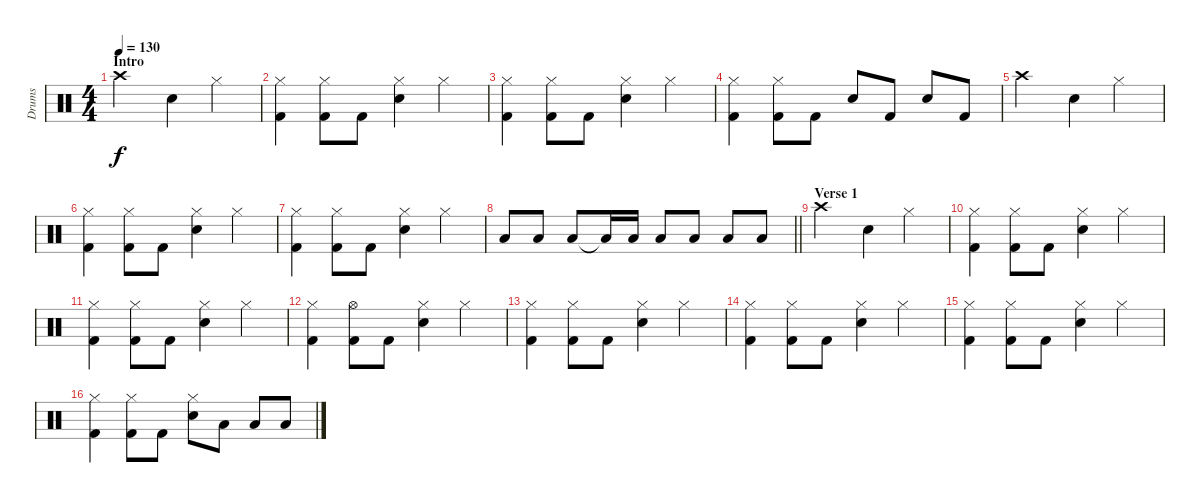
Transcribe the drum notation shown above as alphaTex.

\track ("Drums" "Drums") {instrument percussion}
\staff {score}
\articulation defaults
\ts (4 4)
\section ("" "Intro")
\tempo 130
\clef neutral
\ks c "Crash high (hit)".2{dy f} "Snare (hit) 2".4 "Hi-Hat (closed)".4
|
("Hi-Hat (closed)" "Kick (hit) 2").4 ("Hi-Hat (closed)" "Kick (hit) 2").8 "Kick (hit) 2".8 ("Hi-Hat (closed)" "Snare (hit) 2").4 "Hi-Hat (closed)".4 |
("Hi-Hat (closed)" "Kick (hit) 2").4 ("Hi-Hat (closed)" "Kick (hit) 2").8 "Kick (hit) 2".8 ("Hi-Hat (closed)" "Snare (hit) 2").4 "Hi-Hat (closed)".4 |
("Hi-Hat (closed)" "Kick (hit) 2").4 ("Hi-Hat (closed)" "Kick (hit) 2").8 "Kick (hit) 2".8 "Snare (hit) 2".8 "Kick (hit) 2".8 "Snare (hit) 2".8 "Kick (hit) 2".8 |
"Crash high (hit)".2 "Snare (hit) 2".4 "Hi-Hat (closed)".4 |
("Hi-Hat (closed)" "Kick (hit) 2").4 ("Hi-Hat (closed)" "Kick (hit) 2").8 "Kick (hit) 2".8 ("Hi-Hat (closed)" "Snare (hit) 2").4 "Hi-Hat (closed)".4 |
("Hi-Hat (closed)" "Kick (hit) 2").4 ("Hi-Hat (closed)" "Kick (hit) 2").8 "Kick (hit) 2".8 ("Hi-Hat (closed)" "Snare (hit) 2").4 "Hi-Hat (closed)".4 |
\barLineRight lightlight "Low Tom (hit)".8 "Low Tom (hit)".8 "Low Tom (hit)".8 "Low Tom (hit)"{t}.16 "Low Tom (hit)".16 "Low Tom (hit)".8 "Low Tom (hit)".8 "Low Tom (hit)".8 "Low Tom (hit)".8
|
\section ("" "Verse 1")
"Crash high (hit)".2 "Snare (hit) 2".4 "Hi-Hat (closed)".4 |
("Hi-Hat (closed)" "Kick (hit) 2").4 ("Hi-Hat (closed)" "Kick (hit) 2").8 "Kick (hit) 2".8 ("Hi-Hat (closed)" "Snare (hit) 2").4 "Hi-Hat (closed)".4 |
("Hi-Hat (closed)" "Kick (hit) 2").4 ("Hi-Hat (closed)" "Kick (hit) 2").8 "Kick (hit) 2".8 ("Hi-Hat (closed)" "Snare (hit) 2").4 "Hi-Hat (closed)".4 |
("Hi-Hat (closed)" "Kick (hit) 2").4 ("Hi-Hat (open)" "Kick (hit) 2").8 "Kick (hit) 2".8 ("Hi-Hat (closed)" "Snare (hit) 2").4 "Hi-Hat (closed)".4 |
("Hi-Hat (closed)" "Kick (hit) 2").4 ("Hi-Hat (closed)" "Kick (hit) 2").8 "Kick (hit) 2".8 ("Hi-Hat (closed)" "Snare (hit) 2").4 "Hi-Hat (closed)".4 |
("Hi-Hat (closed)" "Kick (hit) 2").4 ("Hi-Hat (closed)" "Kick (hit) 2").8 "Kick (hit) 2".8 ("Hi-Hat (closed)" "Snare (hit) 2").4 "Hi-Hat (closed)".4 |
("Hi-Hat (closed)" "Kick (hit) 2").4 ("Hi-Hat (closed)" "Kick (hit) 2").8 "Kick (hit) 2".8 ("Hi-Hat (closed)" "Snare (hit) 2").4 "Hi-Hat (closed)".4 |
("Hi-Hat (closed)" "Kick (hit) 2").4 ("Hi-Hat (closed)" "Kick (hit) 2").8 "Kick (hit) 2".8 ("Hi-Hat (closed)" "Snare (hit) 2").8 "Low Tom (hit)".8 "Low Tom (hit)".8 "Low Tom (hit)".8
